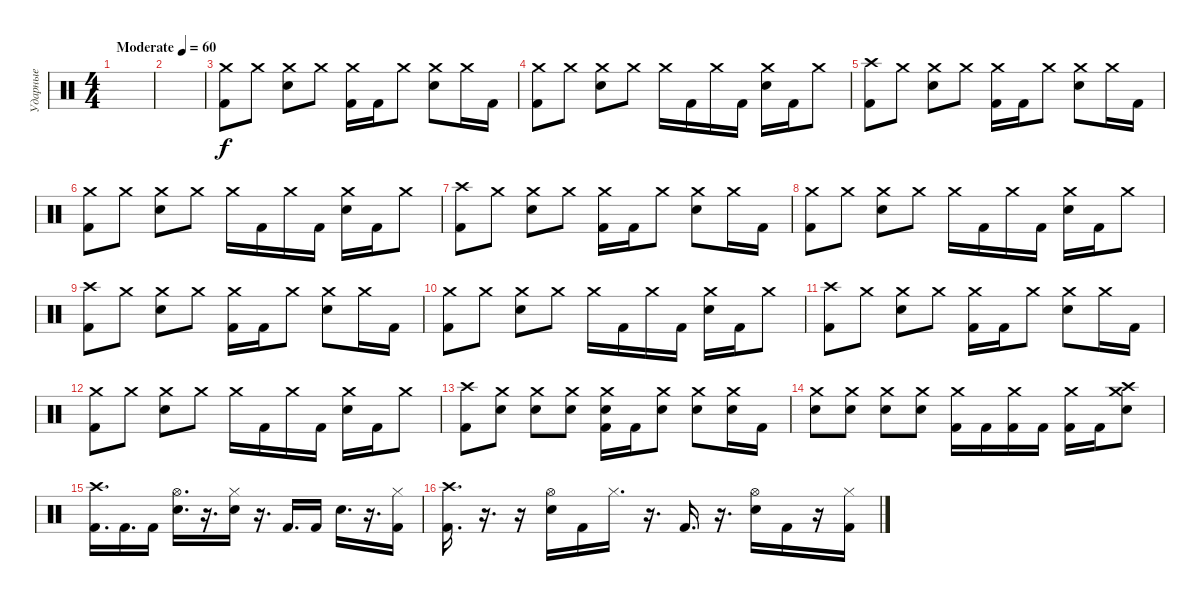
\track ("Ударные" "Ударные") {instrument percussion}
\staff {score}
\articulation defaults
\ts (4 4)
\tempo (60 "Moderate")
\clef neutral
\ks c
|
|
("Crash medium (hit)" "Kick (hit) 2").8 "Crash medium (hit)".8 ("Crash medium (hit)" "Electric Snare (hit)").8 "Crash medium (hit)".8 ("Crash medium (hit)" "Kick (hit) 2").16 "Kick (hit) 2".16 "Crash medium (hit)".8 ("Crash medium (hit)" "Electric Snare (hit)").8 "Crash medium (hit)".16 "Kick (hit) 2".16 |
("Crash medium (hit)" "Kick (hit) 2").8 "Crash medium (hit)".8 ("Crash medium (hit)" "Electric Snare (hit)").8 "Crash medium (hit)".8 "Crash medium (hit)".16 "Kick (hit) 2".16 "Crash medium (hit)".16 "Kick (hit) 2".16 ("Crash medium (hit)" "Electric Snare (hit)").16 "Kick (hit) 2".16 "Crash medium (hit)".8 |
("Crash high (hit)" "Kick (hit) 2").8 "Crash medium (hit)".8 ("Crash medium (hit)" "Electric Snare (hit)").8 "Crash medium (hit)".8 ("Crash medium (hit)" "Kick (hit) 2").16 "Kick (hit) 2".16 "Crash medium (hit)".8 ("Crash medium (hit)" "Electric Snare (hit)").8 "Crash medium (hit)".16 "Kick (hit) 2".16 |
("Crash medium (hit)" "Kick (hit) 2").8 "Crash medium (hit)".8 ("Crash medium (hit)" "Electric Snare (hit)").8 "Crash medium (hit)".8 "Crash medium (hit)".16 "Kick (hit) 2".16 "Crash medium (hit)".16 "Kick (hit) 2".16 ("Crash medium (hit)" "Electric Snare (hit)").16 "Kick (hit) 2".16 "Crash medium (hit)".8 |
("Crash high (hit)" "Kick (hit) 2").8 "Crash medium (hit)".8 ("Crash medium (hit)" "Electric Snare (hit)").8 "Crash medium (hit)".8 ("Crash medium (hit)" "Kick (hit) 2").16 "Kick (hit) 2".16 "Crash medium (hit)".8 ("Crash medium (hit)" "Electric Snare (hit)").8 "Crash medium (hit)".16 "Kick (hit) 2".16 |
("Crash medium (hit)" "Kick (hit) 2").8 "Crash medium (hit)".8 ("Crash medium (hit)" "Electric Snare (hit)").8 "Crash medium (hit)".8 "Crash medium (hit)".16 "Kick (hit) 2".16 "Crash medium (hit)".16 "Kick (hit) 2".16 ("Crash medium (hit)" "Electric Snare (hit)").16 "Kick (hit) 2".16 "Crash medium (hit)".8 |
("Crash high (hit)" "Kick (hit) 2").8 "Crash medium (hit)".8 ("Crash medium (hit)" "Electric Snare (hit)").8 "Crash medium (hit)".8 ("Crash medium (hit)" "Kick (hit) 2").16 "Kick (hit) 2".16 "Crash medium (hit)".8 ("Crash medium (hit)" "Electric Snare (hit)").8 "Crash medium (hit)".16 "Kick (hit) 2".16 |
("Crash medium (hit)" "Kick (hit) 2").8 "Crash medium (hit)".8 ("Crash medium (hit)" "Electric Snare (hit)").8 "Crash medium (hit)".8 "Crash medium (hit)".16 "Kick (hit) 2".16 "Crash medium (hit)".16 "Kick (hit) 2".16 ("Crash medium (hit)" "Electric Snare (hit)").16 "Kick (hit) 2".16 "Crash medium (hit)".8 |
("Crash high (hit)" "Kick (hit) 2").8 "Crash medium (hit)".8 ("Crash medium (hit)" "Electric Snare (hit)").8 "Crash medium (hit)".8 ("Crash medium (hit)" "Kick (hit) 2").16 "Kick (hit) 2".16 "Crash medium (hit)".8 ("Crash medium (hit)" "Electric Snare (hit)").8 "Crash medium (hit)".16 "Kick (hit) 2".16 |
("Crash medium (hit)" "Kick (hit) 2").8 "Crash medium (hit)".8 ("Crash medium (hit)" "Electric Snare (hit)").8 "Crash medium (hit)".8 "Crash medium (hit)".16 "Kick (hit) 2".16 "Crash medium (hit)".16 "Kick (hit) 2".16 ("Crash medium (hit)" "Electric Snare (hit)").16 "Kick (hit) 2".16 "Crash medium (hit)".8 |
("Crash high (hit)" "Kick (hit) 2").8 ("Crash medium (hit)" "Electric Snare (hit)").8 ("Crash medium (hit)" "Electric Snare (hit)").8 ("Crash medium (hit)" "Electric Snare (hit)").8 ("Crash medium (hit)" "Electric Snare (hit)" "Kick (hit) 2").16 "Kick (hit) 2".16 ("Crash medium (hit)" "Electric Snare (hit)").8 ("Crash medium (hit)" "Electric Snare (hit)").8 ("Crash medium (hit)" "Electric Snare (hit)").16 "Kick (hit) 2".16 |
("Crash medium (hit)" "Electric Snare (hit)").8 ("Crash medium (hit)" "Electric Snare (hit)").8 ("Crash medium (hit)" "Electric Snare (hit)").8 ("Crash medium (hit)" "Electric Snare (hit)").8 ("Crash medium (hit)" "Kick (hit) 2").16 "Kick (hit) 2".16 ("Crash medium (hit)" "Kick (hit) 2").16 "Kick (hit) 2".16 ("Crash medium (hit)" "Kick (hit) 2").16 "Kick (hit) 2".16 ("Crash high (hit)" "Crash medium (hit)" "Electric Snare (hit)").8 |
("Crash high (hit)" "Kick (hit) 2").16{d} "Kick (hit) 2".16{d} "Kick (hit) 2".16 ("Hi-Hat (open)" "Electric Snare (hit)").16{d} r.16{d} ("Hi-Hat (closed)" "Electric Snare (hit)").16 r.16{d} "Kick (hit) 2".16{d} "Kick (hit) 2".16 "Electric Snare (hit)".16{d} r.16{d} ("Hi-Hat (closed)" "Kick (hit) 2").16 |
("Crash high (hit)" "Kick (hit) 2").16{d} r.16{d} r.16 ("Hi-Hat (open)" "Electric Snare (hit)").16 "Kick (hit) 2".16 "Hi-Hat (closed)".16{d} r.16{d} "Kick (hit) 2".16{d} r.16{d} ("Hi-Hat (open)" "Electric Snare (hit)").16 "Kick (hit) 2".16 r.16 ("Hi-Hat (closed)" "Kick (hit) 2").16
